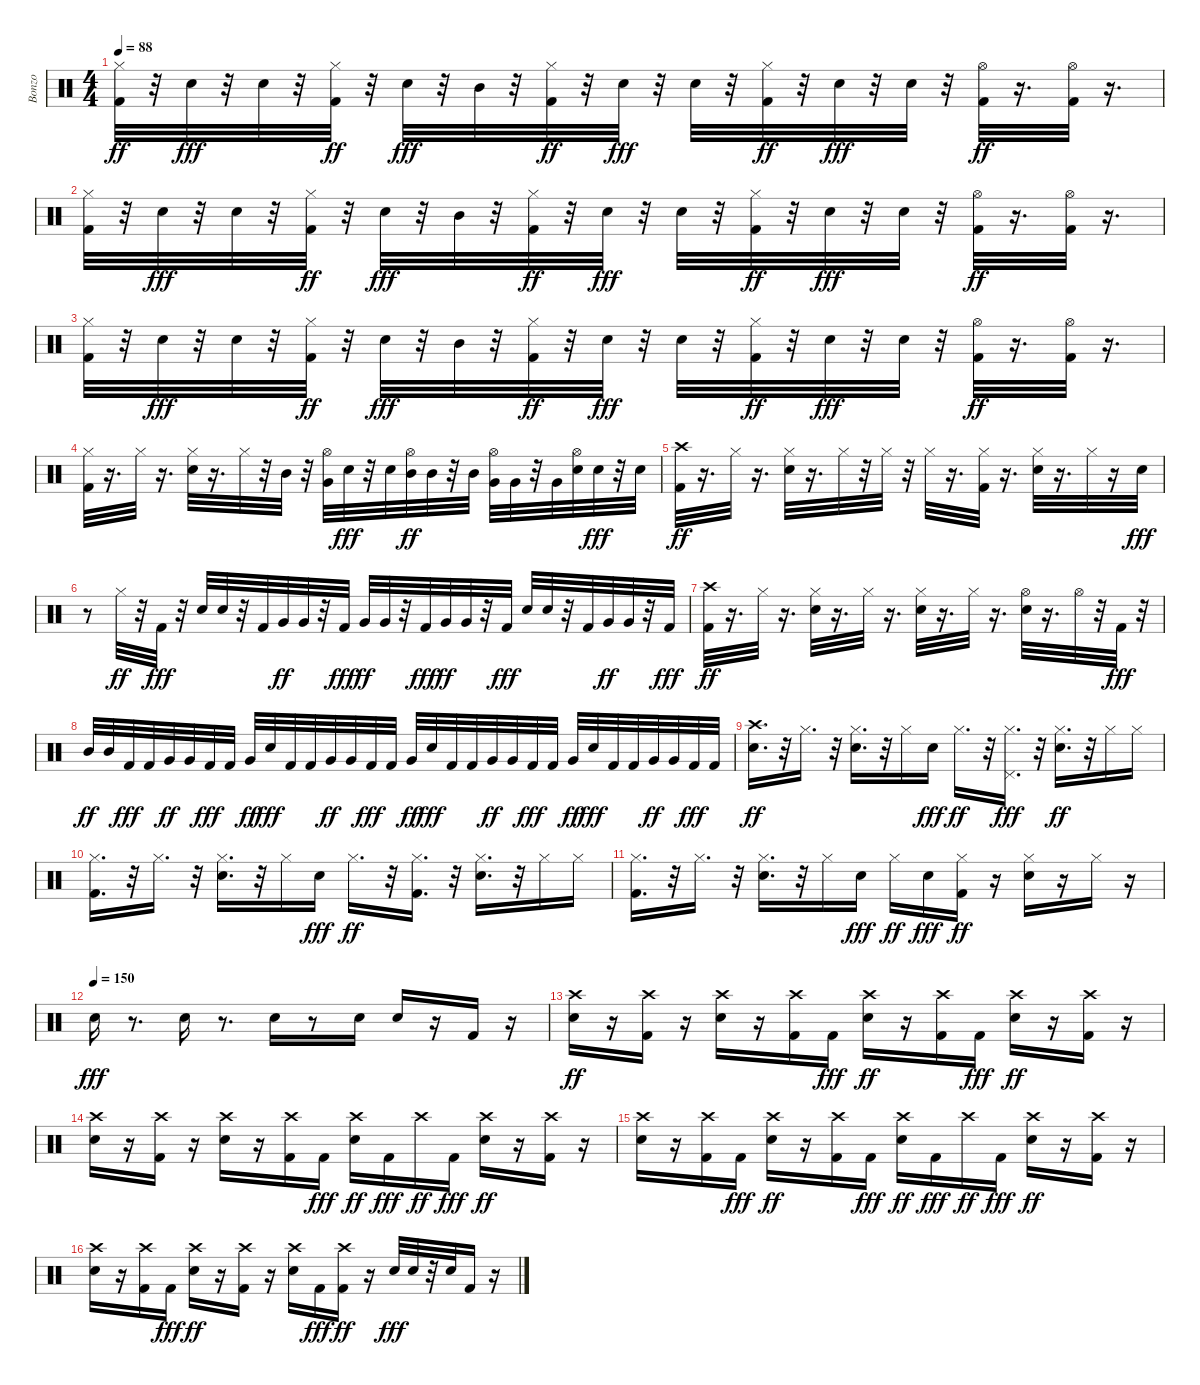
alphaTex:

\track ("Bonzo" "Bonzo") {instrument percussion}
\staff {score}
\articulation defaults
\ts (4 4)
\tempo 88
\clef neutral
\ks c
("Kick (hit) 2" "Hi-Hat (closed)").32{dy ff} r.32 "Snare (hit) 2".32{dy fff} r.32 "Snare (hit) 2".32 r.32 ("Kick (hit) 2" "Hi-Hat (closed)").32{dy ff} r.32 "Snare (hit) 2".32{dy fff} r.32 "Mid Tom (hit)".32 r.32 ("Kick (hit) 2" "Hi-Hat (closed)").32{dy ff} r.32 "Snare (hit) 2".32{dy fff} r.32 "Snare (hit) 2".32 r.32 ("Kick (hit) 2" "Hi-Hat (closed)").32{dy ff} r.32 "Snare (hit) 2".32{dy fff} r.32 "Snare (hit) 2".32 r.32 ("Kick (hit) 2" "Hi-Hat (open)").32{dy ff} r.16{d} ("Kick (hit) 2" "Hi-Hat (open)").32 r.16{d} |
("Kick (hit) 2" "Hi-Hat (closed)").32 r.32 "Snare (hit) 2".32{dy fff} r.32 "Snare (hit) 2".32 r.32 ("Kick (hit) 2" "Hi-Hat (closed)").32{dy ff} r.32 "Snare (hit) 2".32{dy fff} r.32 "Mid Tom (hit)".32 r.32 ("Kick (hit) 2" "Hi-Hat (closed)").32{dy ff} r.32 "Snare (hit) 2".32{dy fff} r.32 "Snare (hit) 2".32 r.32 ("Kick (hit) 2" "Hi-Hat (closed)").32{dy ff} r.32 "Snare (hit) 2".32{dy fff} r.32 "Snare (hit) 2".32 r.32 ("Kick (hit) 2" "Hi-Hat (open)").32{dy ff} r.16{d} ("Kick (hit) 2" "Hi-Hat (open)").32 r.16{d} |
("Kick (hit) 2" "Hi-Hat (closed)").32 r.32 "Snare (hit) 2".32{dy fff} r.32 "Snare (hit) 2".32 r.32 ("Kick (hit) 2" "Hi-Hat (closed)").32{dy ff} r.32 "Snare (hit) 2".32{dy fff} r.32 "Mid Tom (hit)".32 r.32 ("Kick (hit) 2" "Hi-Hat (closed)").32{dy ff} r.32 "Snare (hit) 2".32{dy fff} r.32 "Snare (hit) 2".32 r.32 ("Kick (hit) 2" "Hi-Hat (closed)").32{dy ff} r.32 "Snare (hit) 2".32{dy fff} r.32 "Snare (hit) 2".32 r.32 ("Kick (hit) 2" "Hi-Hat (open)").32{dy ff} r.16{d} ("Kick (hit) 2" "Hi-Hat (open)").32 r.16{d} |
("Kick (hit) 2" "Hi-Hat (closed)").32 r.16{d} "Hi-Hat (closed)".32 r.16{d} ("Snare (hit) 2" "Hi-Hat (closed)").32 r.16{d} "Hi-Hat (closed)".32 r.32 "Mid Tom (hit)".32 r.32 ("Very Low Tom (hit)" "Hi-Hat (open)").32 "Snare (hit) 2".32{dy fff} r.32 "Snare (hit) 2".32 ("Hi-Hat (open)" "Mid Tom (hit)").32{dy ff} "Mid Tom (hit)".32 r.32 "Mid Tom (hit)".32 ("Very Low Tom (hit)" "Hi-Hat (open)").32 "Very Low Tom (hit)".32 r.32 "Very Low Tom (hit)".32 ("Snare (hit) 2" "Hi-Hat (open)").32 "Snare (hit) 2".32{dy fff} r.32 "Snare (hit) 2".32 |
("Kick (hit) 2" "Crash high (hit)").32{dy ff} r.16{d} "Hi-Hat (closed)".32 r.16{d} ("Snare (hit) 2" "Hi-Hat (closed)").32 r.16{d} "Hi-Hat (closed)".32 r.32 "Hi-Hat (closed)".32 r.32 "Hi-Hat (closed)".32 r.16{d} ("Kick (hit) 2" "Hi-Hat (closed)").32 r.16{d} ("Snare (hit) 2" "Hi-Hat (closed)").32 r.16{d} "Hi-Hat (closed)".32 r.16 "Snare (hit) 2".32{dy fff} |
r.8 "Hi-Hat (closed)".32{dy ff} r.32 "Kick (hit) 2".32{dy fff} r.32 "Snare (hit) 2".32 "Snare (hit) 2".32 r.32 "Kick (hit) 2".32 "Very Low Tom (hit)".32{dy ff} "Very Low Tom (hit)".32 r.32 "Kick (hit) 2".32{dy fff} "Very Low Tom (hit)".32{dy ff} "Very Low Tom (hit)".32 r.32 "Kick (hit) 2".32{dy fff} "Very Low Tom (hit)".32{dy ff} "Very Low Tom (hit)".32 r.32 "Kick (hit) 2".32{dy fff} "Snare (hit) 2".32 "Snare (hit) 2".32 r.32 "Kick (hit) 2".32 "Very Low Tom (hit)".32{dy ff} "Very Low Tom (hit)".32 r.32 "Kick (hit) 2".32{dy fff} |
("Kick (hit) 2" "Crash high (hit)").32{dy ff} r.16{d} "Hi-Hat (closed)".32 r.16{d} ("Snare (hit) 2" "Hi-Hat (closed)").32 r.16{d} "Hi-Hat (closed)".32 r.16{d} ("Snare (hit) 2" "Hi-Hat (closed)").32 r.16{d} "Hi-Hat (closed)".32 r.16{d} ("Snare (hit) 2" "Hi-Hat (open)").32 r.16{d} "Hi-Hat (open)".32 r.32 "Kick (hit) 2".32{dy fff} r.32 |
"Mid Tom (hit)".32{dy ff} "Mid Tom (hit)".32 "Kick (hit) 2".32{dy fff} "Kick (hit) 2".32 "Very Low Tom (hit)".32{dy ff} "Very Low Tom (hit)".32 "Kick (hit) 2".32{dy fff} "Kick (hit) 2".32 "Very Low Tom (hit)".32{dy ff} "Snare (hit) 2".32{dy fff} "Kick (hit) 2".32 "Kick (hit) 2".32 "Very Low Tom (hit)".32{dy ff} "Very Low Tom (hit)".32 "Kick (hit) 2".32{dy fff} "Kick (hit) 2".32 "Very Low Tom (hit)".32{dy ff} "Snare (hit) 2".32{dy fff} "Kick (hit) 2".32 "Kick (hit) 2".32 "Very Low Tom (hit)".32{dy ff} "Very Low Tom (hit)".32 "Kick (hit) 2".32{dy fff} "Kick (hit) 2".32 "Very Low Tom (hit)".32{dy ff} "Snare (hit) 2".32{dy fff} "Kick (hit) 2".32 "Kick (hit) 2".32 "Very Low Tom (hit)".32{dy ff} "Very Low Tom (hit)".32 "Kick (hit) 2".32{dy fff} "Kick (hit) 2".32 |
("Snare (hit) 2" "Crash high (hit)").16{d dy ff} r.32 "Hi-Hat (closed)".16{d} r.32 ("Snare (hit) 2" "Hi-Hat (closed)").16{d} r.32 "Hi-Hat (closed)".16 "Snare (hit) 2".16{dy fff} "Hi-Hat (closed)".16{d dy ff} r.32 ("Hi-Hat (closed)" "Pedal Hi-Hat (hit)").16{d dy fff} r.32 ("Snare (hit) 2" "Hi-Hat (closed)").16{d dy ff} r.32 "Hi-Hat (closed)".16 "Hi-Hat (closed)".16 |
("Kick (hit) 2" "Hi-Hat (closed)").16{d} r.32 "Hi-Hat (closed)".16{d} r.32 ("Snare (hit) 2" "Hi-Hat (closed)").16{d} r.32 "Hi-Hat (closed)".16 "Snare (hit) 2".16{dy fff} "Hi-Hat (closed)".16{d dy ff} r.32 ("Kick (hit) 2" "Hi-Hat (closed)").16{d} r.32 ("Snare (hit) 2" "Hi-Hat (closed)").16{d} r.32 "Hi-Hat (closed)".16 "Hi-Hat (closed)".16 |
("Kick (hit) 2" "Hi-Hat (closed)").16{d} r.32 "Hi-Hat (closed)".16{d} r.32 ("Snare (hit) 2" "Hi-Hat (closed)").16{d} r.32 "Hi-Hat (closed)".16 "Snare (hit) 2".16{dy fff} "Hi-Hat (closed)".16{dy ff} "Snare (hit) 2".16{dy fff} ("Kick (hit) 2" "Hi-Hat (closed)").16{dy ff} r.16 ("Snare (hit) 2" "Hi-Hat (closed)").16 r.16 "Hi-Hat (closed)".16 r.16 |
\tempo (150)
"Snare (hit) 2".16{dy fff} r.8{d} "Snare (hit) 2".16 r.8{d} "Snare (hit) 2".16 r.8 "Snare (hit) 2".16 "Snare (hit) 2".16 r.16 "Kick (hit) 2".16 r.16 |
("Snare (hit) 2" "Crash high (hit)").16{dy ff} r.16 ("Kick (hit) 2" "Crash high (hit)").16 r.16 ("Snare (hit) 2" "Crash high (hit)").16 r.16 ("Kick (hit) 2" "Crash high (hit)").16 "Kick (hit) 2".16{dy fff} ("Snare (hit) 2" "Crash high (hit)").16{dy ff} r.16 ("Kick (hit) 2" "Crash high (hit)").16 "Kick (hit) 2".16{dy fff} ("Snare (hit) 2" "Crash high (hit)").16{dy ff} r.16 ("Kick (hit) 2" "Crash high (hit)").16 r.16 |
("Snare (hit) 2" "Crash high (hit)").16 r.16 ("Kick (hit) 2" "Crash high (hit)").16 r.16 ("Snare (hit) 2" "Crash high (hit)").16 r.16 ("Kick (hit) 2" "Crash high (hit)").16 "Kick (hit) 2".16{dy fff} ("Snare (hit) 2" "Crash high (hit)").16{dy ff} "Kick (hit) 2".16{dy fff} "Crash high (hit)".16{dy ff} "Kick (hit) 2".16{dy fff} ("Snare (hit) 2" "Crash high (hit)").16{dy ff} r.16 ("Kick (hit) 2" "Crash high (hit)").16 r.16 |
("Snare (hit) 2" "Crash high (hit)").16 r.16 ("Kick (hit) 2" "Crash high (hit)").16 "Kick (hit) 2".16{dy fff} ("Snare (hit) 2" "Crash high (hit)").16{dy ff} r.16 ("Kick (hit) 2" "Crash high (hit)").16 "Kick (hit) 2".16{dy fff} ("Snare (hit) 2" "Crash high (hit)").16{dy ff} "Kick (hit) 2".16{dy fff} "Crash high (hit)".16{dy ff} "Kick (hit) 2".16{dy fff} ("Snare (hit) 2" "Crash high (hit)").16{dy ff} r.16 ("Kick (hit) 2" "Crash high (hit)").16 r.16 |
("Snare (hit) 2" "Crash high (hit)").16 r.16 ("Kick (hit) 2" "Crash high (hit)").16 "Kick (hit) 2".16{dy fff} ("Snare (hit) 2" "Crash high (hit)").16{dy ff} r.16 ("Kick (hit) 2" "Crash high (hit)").16 r.16 ("Snare (hit) 2" "Crash high (hit)").16 "Kick (hit) 2".16{dy fff} ("Kick (hit) 2" "Crash high (hit)").16{dy ff} r.16 "Snare (hit) 2".32{dy fff} "Snare (hit) 2".32 r.32 "Snare (hit) 2".32 "Kick (hit) 2".16 r.16
